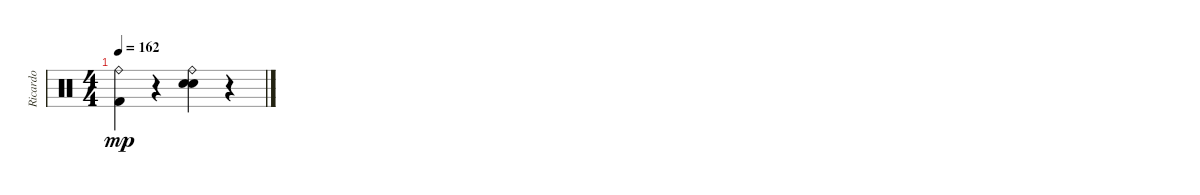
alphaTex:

\track ("Ricardo" "Ricardo") {instrument percussion}
\staff {score}
\articulation defaults
\ts (4 4)
\tempo 162
\clef neutral
\ks c
("Ride (bell)" "Kick (hit) 2").4{dy mp} r.4 ("Ride (bell)" "Electric Snare (hit)" "Snare (hit) 2").4 r.4
